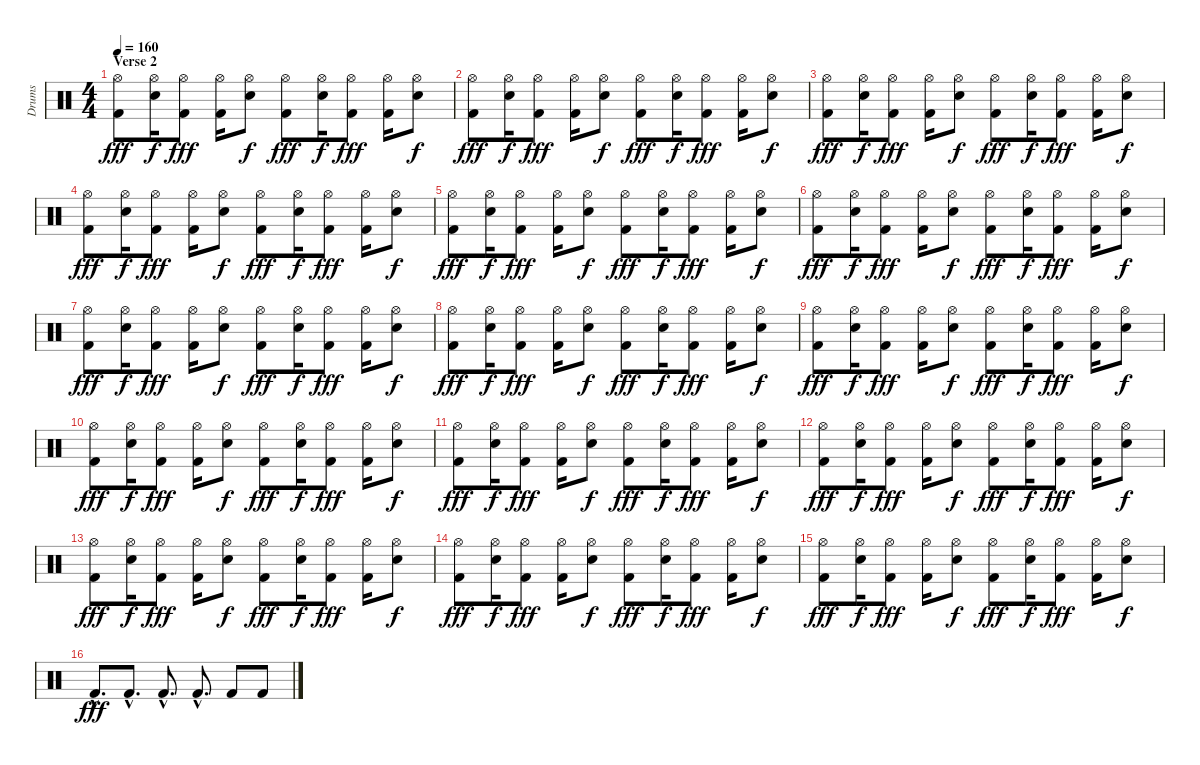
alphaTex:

\track ("Drums" "Drums") {instrument percussion}
\staff {score}
\articulation defaults
\ts (4 4)
\section ("" "Verse 2")
\tempo 160
\clef neutral
\ks c
("Hi-Hat (open)" "Kick (hit) 2").8{dy fff} ("Hi-Hat (open)" "Electric Snare (hit)").16{dy f} ("Hi-Hat (open)" "Kick (hit) 2").8{dy fff} ("Hi-Hat (open)" "Kick (hit) 2").16 ("Hi-Hat (open)" "Electric Snare (hit)").8{dy f} ("Hi-Hat (open)" "Kick (hit) 2").8{dy fff} ("Hi-Hat (open)" "Electric Snare (hit)").16{dy f} ("Hi-Hat (open)" "Kick (hit) 2").8{dy fff} ("Hi-Hat (open)" "Kick (hit) 2").16 ("Hi-Hat (open)" "Electric Snare (hit)").8{dy f} |
("Hi-Hat (open)" "Kick (hit) 2").8{dy fff} ("Hi-Hat (open)" "Electric Snare (hit)").16{dy f} ("Hi-Hat (open)" "Kick (hit) 2").8{dy fff} ("Hi-Hat (open)" "Kick (hit) 2").16 ("Hi-Hat (open)" "Electric Snare (hit)").8{dy f} ("Hi-Hat (open)" "Kick (hit) 2").8{dy fff} ("Hi-Hat (open)" "Electric Snare (hit)").16{dy f} ("Hi-Hat (open)" "Kick (hit) 2").8{dy fff} ("Hi-Hat (open)" "Kick (hit) 2").16 ("Hi-Hat (open)" "Electric Snare (hit)").8{dy f} |
("Hi-Hat (open)" "Kick (hit) 2").8{dy fff} ("Hi-Hat (open)" "Electric Snare (hit)").16{dy f} ("Hi-Hat (open)" "Kick (hit) 2").8{dy fff} ("Hi-Hat (open)" "Kick (hit) 2").16 ("Hi-Hat (open)" "Electric Snare (hit)").8{dy f} ("Hi-Hat (open)" "Kick (hit) 2").8{dy fff} ("Hi-Hat (open)" "Electric Snare (hit)").16{dy f} ("Hi-Hat (open)" "Kick (hit) 2").8{dy fff} ("Hi-Hat (open)" "Kick (hit) 2").16 ("Hi-Hat (open)" "Electric Snare (hit)").8{dy f} |
("Hi-Hat (open)" "Kick (hit) 2").8{dy fff} ("Hi-Hat (open)" "Electric Snare (hit)").16{dy f} ("Hi-Hat (open)" "Kick (hit) 2").8{dy fff} ("Hi-Hat (open)" "Kick (hit) 2").16 ("Hi-Hat (open)" "Electric Snare (hit)").8{dy f} ("Hi-Hat (open)" "Kick (hit) 2").8{dy fff} ("Hi-Hat (open)" "Electric Snare (hit)").16{dy f} ("Hi-Hat (open)" "Kick (hit) 2").8{dy fff} ("Hi-Hat (open)" "Kick (hit) 2").16 ("Hi-Hat (open)" "Electric Snare (hit)").8{dy f} |
("Hi-Hat (open)" "Kick (hit) 2").8{dy fff} ("Hi-Hat (open)" "Electric Snare (hit)").16{dy f} ("Hi-Hat (open)" "Kick (hit) 2").8{dy fff} ("Hi-Hat (open)" "Kick (hit) 2").16 ("Hi-Hat (open)" "Electric Snare (hit)").8{dy f} ("Hi-Hat (open)" "Kick (hit) 2").8{dy fff} ("Hi-Hat (open)" "Electric Snare (hit)").16{dy f} ("Hi-Hat (open)" "Kick (hit) 2").8{dy fff} ("Hi-Hat (open)" "Kick (hit) 2").16 ("Hi-Hat (open)" "Electric Snare (hit)").8{dy f} |
("Hi-Hat (open)" "Kick (hit) 2").8{dy fff} ("Hi-Hat (open)" "Electric Snare (hit)").16{dy f} ("Hi-Hat (open)" "Kick (hit) 2").8{dy fff} ("Hi-Hat (open)" "Kick (hit) 2").16 ("Hi-Hat (open)" "Electric Snare (hit)").8{dy f} ("Hi-Hat (open)" "Kick (hit) 2").8{dy fff} ("Hi-Hat (open)" "Electric Snare (hit)").16{dy f} ("Hi-Hat (open)" "Kick (hit) 2").8{dy fff} ("Hi-Hat (open)" "Kick (hit) 2").16 ("Hi-Hat (open)" "Electric Snare (hit)").8{dy f} |
("Hi-Hat (open)" "Kick (hit) 2").8{dy fff} ("Hi-Hat (open)" "Electric Snare (hit)").16{dy f} ("Hi-Hat (open)" "Kick (hit) 2").8{dy fff} ("Hi-Hat (open)" "Kick (hit) 2").16 ("Hi-Hat (open)" "Electric Snare (hit)").8{dy f} ("Hi-Hat (open)" "Kick (hit) 2").8{dy fff} ("Hi-Hat (open)" "Electric Snare (hit)").16{dy f} ("Hi-Hat (open)" "Kick (hit) 2").8{dy fff} ("Hi-Hat (open)" "Kick (hit) 2").16 ("Hi-Hat (open)" "Electric Snare (hit)").8{dy f} |
("Hi-Hat (open)" "Kick (hit) 2").8{dy fff} ("Hi-Hat (open)" "Electric Snare (hit)").16{dy f} ("Hi-Hat (open)" "Kick (hit) 2").8{dy fff} ("Hi-Hat (open)" "Kick (hit) 2").16 ("Hi-Hat (open)" "Electric Snare (hit)").8{dy f} ("Hi-Hat (open)" "Kick (hit) 2").8{dy fff} ("Hi-Hat (open)" "Electric Snare (hit)").16{dy f} ("Hi-Hat (open)" "Kick (hit) 2").8{dy fff} ("Hi-Hat (open)" "Kick (hit) 2").16 ("Hi-Hat (open)" "Electric Snare (hit)").8{dy f} |
("Hi-Hat (open)" "Kick (hit) 2").8{dy fff} ("Hi-Hat (open)" "Electric Snare (hit)").16{dy f} ("Hi-Hat (open)" "Kick (hit) 2").8{dy fff} ("Hi-Hat (open)" "Kick (hit) 2").16 ("Hi-Hat (open)" "Electric Snare (hit)").8{dy f} ("Hi-Hat (open)" "Kick (hit) 2").8{dy fff} ("Hi-Hat (open)" "Electric Snare (hit)").16{dy f} ("Hi-Hat (open)" "Kick (hit) 2").8{dy fff} ("Hi-Hat (open)" "Kick (hit) 2").16 ("Hi-Hat (open)" "Electric Snare (hit)").8{dy f} |
("Hi-Hat (open)" "Kick (hit) 2").8{dy fff} ("Hi-Hat (open)" "Electric Snare (hit)").16{dy f} ("Hi-Hat (open)" "Kick (hit) 2").8{dy fff} ("Hi-Hat (open)" "Kick (hit) 2").16 ("Hi-Hat (open)" "Electric Snare (hit)").8{dy f} ("Hi-Hat (open)" "Kick (hit) 2").8{dy fff} ("Hi-Hat (open)" "Electric Snare (hit)").16{dy f} ("Hi-Hat (open)" "Kick (hit) 2").8{dy fff} ("Hi-Hat (open)" "Kick (hit) 2").16 ("Hi-Hat (open)" "Electric Snare (hit)").8{dy f} |
("Hi-Hat (open)" "Kick (hit) 2").8{dy fff} ("Hi-Hat (open)" "Electric Snare (hit)").16{dy f} ("Hi-Hat (open)" "Kick (hit) 2").8{dy fff} ("Hi-Hat (open)" "Kick (hit) 2").16 ("Hi-Hat (open)" "Electric Snare (hit)").8{dy f} ("Hi-Hat (open)" "Kick (hit) 2").8{dy fff} ("Hi-Hat (open)" "Electric Snare (hit)").16{dy f} ("Hi-Hat (open)" "Kick (hit) 2").8{dy fff} ("Hi-Hat (open)" "Kick (hit) 2").16 ("Hi-Hat (open)" "Electric Snare (hit)").8{dy f} |
("Hi-Hat (open)" "Kick (hit) 2").8{dy fff} ("Hi-Hat (open)" "Electric Snare (hit)").16{dy f} ("Hi-Hat (open)" "Kick (hit) 2").8{dy fff} ("Hi-Hat (open)" "Kick (hit) 2").16 ("Hi-Hat (open)" "Electric Snare (hit)").8{dy f} ("Hi-Hat (open)" "Kick (hit) 2").8{dy fff} ("Hi-Hat (open)" "Electric Snare (hit)").16{dy f} ("Hi-Hat (open)" "Kick (hit) 2").8{dy fff} ("Hi-Hat (open)" "Kick (hit) 2").16 ("Hi-Hat (open)" "Electric Snare (hit)").8{dy f} |
("Hi-Hat (open)" "Kick (hit) 2").8{dy fff} ("Hi-Hat (open)" "Electric Snare (hit)").16{dy f} ("Hi-Hat (open)" "Kick (hit) 2").8{dy fff} ("Hi-Hat (open)" "Kick (hit) 2").16 ("Hi-Hat (open)" "Electric Snare (hit)").8{dy f} ("Hi-Hat (open)" "Kick (hit) 2").8{dy fff} ("Hi-Hat (open)" "Electric Snare (hit)").16{dy f} ("Hi-Hat (open)" "Kick (hit) 2").8{dy fff} ("Hi-Hat (open)" "Kick (hit) 2").16 ("Hi-Hat (open)" "Electric Snare (hit)").8{dy f} |
("Hi-Hat (open)" "Kick (hit) 2").8{dy fff} ("Hi-Hat (open)" "Electric Snare (hit)").16{dy f} ("Hi-Hat (open)" "Kick (hit) 2").8{dy fff} ("Hi-Hat (open)" "Kick (hit) 2").16 ("Hi-Hat (open)" "Electric Snare (hit)").8{dy f} ("Hi-Hat (open)" "Kick (hit) 2").8{dy fff} ("Hi-Hat (open)" "Electric Snare (hit)").16{dy f} ("Hi-Hat (open)" "Kick (hit) 2").8{dy fff} ("Hi-Hat (open)" "Kick (hit) 2").16 ("Hi-Hat (open)" "Electric Snare (hit)").8{dy f} |
("Hi-Hat (open)" "Kick (hit) 2").8{dy fff} ("Hi-Hat (open)" "Electric Snare (hit)").16{dy f} ("Hi-Hat (open)" "Kick (hit) 2").8{dy fff} ("Hi-Hat (open)" "Kick (hit) 2").16 ("Hi-Hat (open)" "Electric Snare (hit)").8{dy f} ("Hi-Hat (open)" "Kick (hit) 2").8{dy fff} ("Hi-Hat (open)" "Electric Snare (hit)").16{dy f} ("Hi-Hat (open)" "Kick (hit) 2").8{dy fff} ("Hi-Hat (open)" "Kick (hit) 2").16 ("Hi-Hat (open)" "Electric Snare (hit)").8{dy f} |
"Kick (hit) 2"{hac}.8{d dy fff} "Kick (hit) 2"{hac}.8{d} "Kick (hit) 2"{hac}.8{d} "Kick (hit) 2"{hac}.8{d} "Kick (hit) 2".8 "Kick (hit) 2".8
